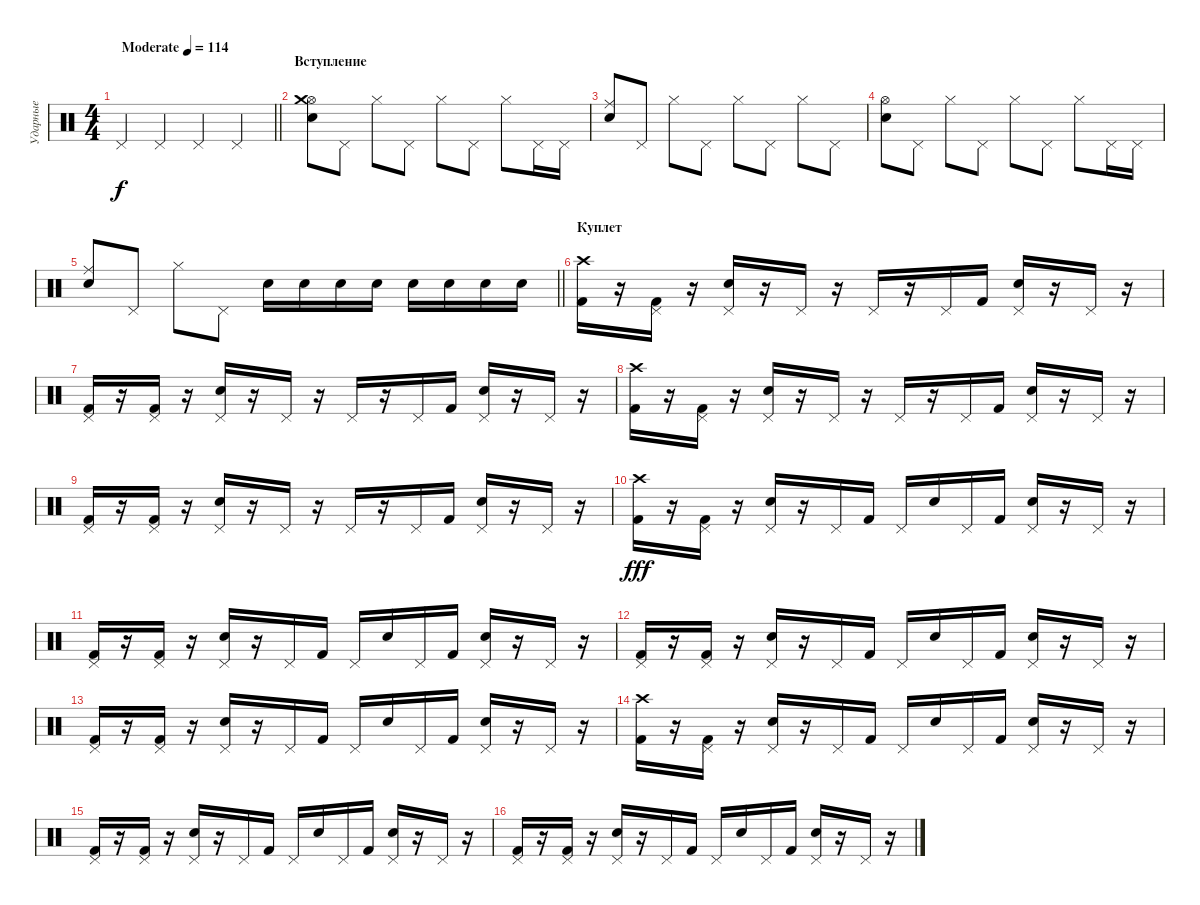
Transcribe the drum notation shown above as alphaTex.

\track ("Ударные" "Ударные") {instrument percussion}
\staff {score}
\articulation defaults
\ts (4 4)
\tempo (114 "Moderate")
\clef neutral
\barLineRight lightlight
\ks c "Pedal Hi-Hat (hit)".4{dy f} "Pedal Hi-Hat (hit)".4 "Pedal Hi-Hat (hit)".4 "Pedal Hi-Hat (hit)".4
|
\section ("" "Вступление")
("Snare (hit) 2" "Hi-Hat (open)" "Crash medium (hit)").8 "Pedal Hi-Hat (hit)".8 "Hi-Hat (closed)".8 "Pedal Hi-Hat (hit)".8 "Hi-Hat (closed)".8 "Pedal Hi-Hat (hit)".8 "Hi-Hat (closed)".8 "Pedal Hi-Hat (hit)".16 "Pedal Hi-Hat (hit)".16 |
("Snare (hit) 2" "Ride (middle)").8 "Pedal Hi-Hat (hit)".8 "Hi-Hat (closed)".8 "Pedal Hi-Hat (hit)".8 "Hi-Hat (closed)".8 "Pedal Hi-Hat (hit)".8 "Hi-Hat (closed)".8 "Pedal Hi-Hat (hit)".8 |
("Snare (hit) 2" "Hi-Hat (open)").8 "Pedal Hi-Hat (hit)".8 "Hi-Hat (closed)".8 "Pedal Hi-Hat (hit)".8 "Hi-Hat (closed)".8 "Pedal Hi-Hat (hit)".8 "Hi-Hat (closed)".8 "Pedal Hi-Hat (hit)".16 "Pedal Hi-Hat (hit)".16 |
\barLineRight lightlight
("Snare (hit) 2" "Ride (middle)").8 "Pedal Hi-Hat (hit)".8 "Hi-Hat (closed)".8 "Pedal Hi-Hat (hit)".8 "Electric Snare (hit)".16 "Electric Snare (hit)".16 "Electric Snare (hit)".16 "Electric Snare (hit)".16 "Electric Snare (hit)".16 "Electric Snare (hit)".16 "Electric Snare (hit)".16 "Electric Snare (hit)".16 |
\section ("" "Куплет")
("Kick (hit) 2" "Crash high (hit)").16 r.16 ("Kick (hit) 2" "Pedal Hi-Hat (hit)").16 r.16 ("Electric Snare (hit)" "Pedal Hi-Hat (hit)").16 r.16 "Pedal Hi-Hat (hit)".16 r.16 "Pedal Hi-Hat (hit)".16 r.16 "Pedal Hi-Hat (hit)".16 "Kick (hit) 2".16 ("Electric Snare (hit)" "Pedal Hi-Hat (hit)").16 r.16 "Pedal Hi-Hat (hit)".16 r.16 |
("Kick (hit) 2" "Pedal Hi-Hat (hit)").16 r.16 ("Kick (hit) 2" "Pedal Hi-Hat (hit)").16 r.16 ("Electric Snare (hit)" "Pedal Hi-Hat (hit)").16 r.16 "Pedal Hi-Hat (hit)".16 r.16 "Pedal Hi-Hat (hit)".16 r.16 "Pedal Hi-Hat (hit)".16 "Kick (hit) 2".16 ("Electric Snare (hit)" "Pedal Hi-Hat (hit)").16 r.16 "Pedal Hi-Hat (hit)".16 r.16 |
("Kick (hit) 2" "Crash high (hit)").16 r.16 ("Kick (hit) 2" "Pedal Hi-Hat (hit)").16 r.16 ("Electric Snare (hit)" "Pedal Hi-Hat (hit)").16 r.16 "Pedal Hi-Hat (hit)".16 r.16 "Pedal Hi-Hat (hit)".16 r.16 "Pedal Hi-Hat (hit)".16 "Kick (hit) 2".16 ("Electric Snare (hit)" "Pedal Hi-Hat (hit)").16 r.16 "Pedal Hi-Hat (hit)".16 r.16 |
("Kick (hit) 2" "Pedal Hi-Hat (hit)").16 r.16 ("Kick (hit) 2" "Pedal Hi-Hat (hit)").16 r.16 ("Electric Snare (hit)" "Pedal Hi-Hat (hit)").16 r.16 "Pedal Hi-Hat (hit)".16 r.16 "Pedal Hi-Hat (hit)".16 r.16 "Pedal Hi-Hat (hit)".16 "Kick (hit) 2".16 ("Electric Snare (hit)" "Pedal Hi-Hat (hit)").16 r.16 "Pedal Hi-Hat (hit)".16 r.16 |
("Kick (hit) 2" "Crash high (hit)").16{dy fff} r.16 ("Kick (hit) 2" "Pedal Hi-Hat (hit)").16 r.16 ("Electric Snare (hit)" "Pedal Hi-Hat (hit)").16 r.16 "Pedal Hi-Hat (hit)".16 "Kick (hit) 2".16 "Pedal Hi-Hat (hit)".16 "Electric Snare (hit)".16 "Pedal Hi-Hat (hit)".16 "Kick (hit) 2".16 ("Electric Snare (hit)" "Pedal Hi-Hat (hit)").16 r.16 "Pedal Hi-Hat (hit)".16 r.16 |
("Kick (hit) 2" "Pedal Hi-Hat (hit)").16 r.16 ("Kick (hit) 2" "Pedal Hi-Hat (hit)").16 r.16 ("Electric Snare (hit)" "Pedal Hi-Hat (hit)").16 r.16 "Pedal Hi-Hat (hit)".16 "Kick (hit) 2".16 "Pedal Hi-Hat (hit)".16 "Electric Snare (hit)".16 "Pedal Hi-Hat (hit)".16 "Kick (hit) 2".16 ("Electric Snare (hit)" "Pedal Hi-Hat (hit)").16 r.16 "Pedal Hi-Hat (hit)".16 r.16 |
("Kick (hit) 2" "Pedal Hi-Hat (hit)").16 r.16 ("Kick (hit) 2" "Pedal Hi-Hat (hit)").16 r.16 ("Electric Snare (hit)" "Pedal Hi-Hat (hit)").16 r.16 "Pedal Hi-Hat (hit)".16 "Kick (hit) 2".16 "Pedal Hi-Hat (hit)".16 "Electric Snare (hit)".16 "Pedal Hi-Hat (hit)".16 "Kick (hit) 2".16 ("Electric Snare (hit)" "Pedal Hi-Hat (hit)").16 r.16 "Pedal Hi-Hat (hit)".16 r.16 |
("Kick (hit) 2" "Pedal Hi-Hat (hit)").16 r.16 ("Kick (hit) 2" "Pedal Hi-Hat (hit)").16 r.16 ("Electric Snare (hit)" "Pedal Hi-Hat (hit)").16 r.16 "Pedal Hi-Hat (hit)".16 "Kick (hit) 2".16 "Pedal Hi-Hat (hit)".16 "Electric Snare (hit)".16 "Pedal Hi-Hat (hit)".16 "Kick (hit) 2".16 ("Electric Snare (hit)" "Pedal Hi-Hat (hit)").16 r.16 "Pedal Hi-Hat (hit)".16 r.16 |
("Kick (hit) 2" "Crash high (hit)").16 r.16 ("Kick (hit) 2" "Pedal Hi-Hat (hit)").16 r.16 ("Electric Snare (hit)" "Pedal Hi-Hat (hit)").16 r.16 "Pedal Hi-Hat (hit)".16 "Kick (hit) 2".16 "Pedal Hi-Hat (hit)".16 "Electric Snare (hit)".16 "Pedal Hi-Hat (hit)".16 "Kick (hit) 2".16 ("Electric Snare (hit)" "Pedal Hi-Hat (hit)").16 r.16 "Pedal Hi-Hat (hit)".16 r.16 |
("Kick (hit) 2" "Pedal Hi-Hat (hit)").16 r.16 ("Kick (hit) 2" "Pedal Hi-Hat (hit)").16 r.16 ("Electric Snare (hit)" "Pedal Hi-Hat (hit)").16 r.16 "Pedal Hi-Hat (hit)".16 "Kick (hit) 2".16 "Pedal Hi-Hat (hit)".16 "Electric Snare (hit)".16 "Pedal Hi-Hat (hit)".16 "Kick (hit) 2".16 ("Electric Snare (hit)" "Pedal Hi-Hat (hit)").16 r.16 "Pedal Hi-Hat (hit)".16 r.16 |
("Kick (hit) 2" "Pedal Hi-Hat (hit)").16 r.16 ("Kick (hit) 2" "Pedal Hi-Hat (hit)").16 r.16 ("Electric Snare (hit)" "Pedal Hi-Hat (hit)").16 r.16 "Pedal Hi-Hat (hit)".16 "Kick (hit) 2".16 "Pedal Hi-Hat (hit)".16 "Electric Snare (hit)".16 "Pedal Hi-Hat (hit)".16 "Kick (hit) 2".16 ("Electric Snare (hit)" "Pedal Hi-Hat (hit)").16 r.16 "Pedal Hi-Hat (hit)".16 r.16
